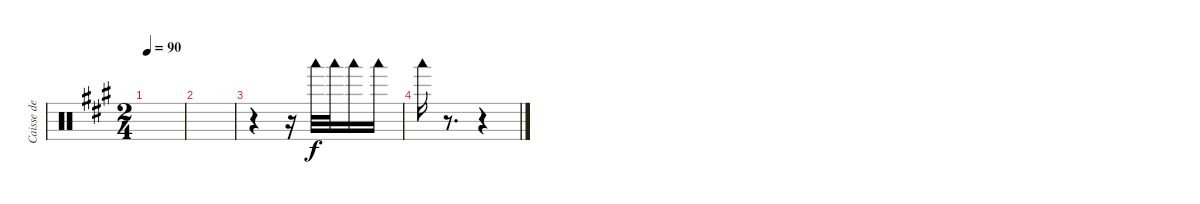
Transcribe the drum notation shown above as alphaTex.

\track ("Caisse de la guitare" "Caisse de ") {instrument percussion}
\staff {score}
\articulation defaults
\ts (2 4)
\tempo 90
\clef neutral
\ks a
|
|
r.4 r.16 "Woodblock low (hit)".32 "Woodblock low (hit)".32 "Woodblock low (hit)".16 "Woodblock low (hit)".16 |
"Woodblock low (hit)".16 r.8{d} r.4
